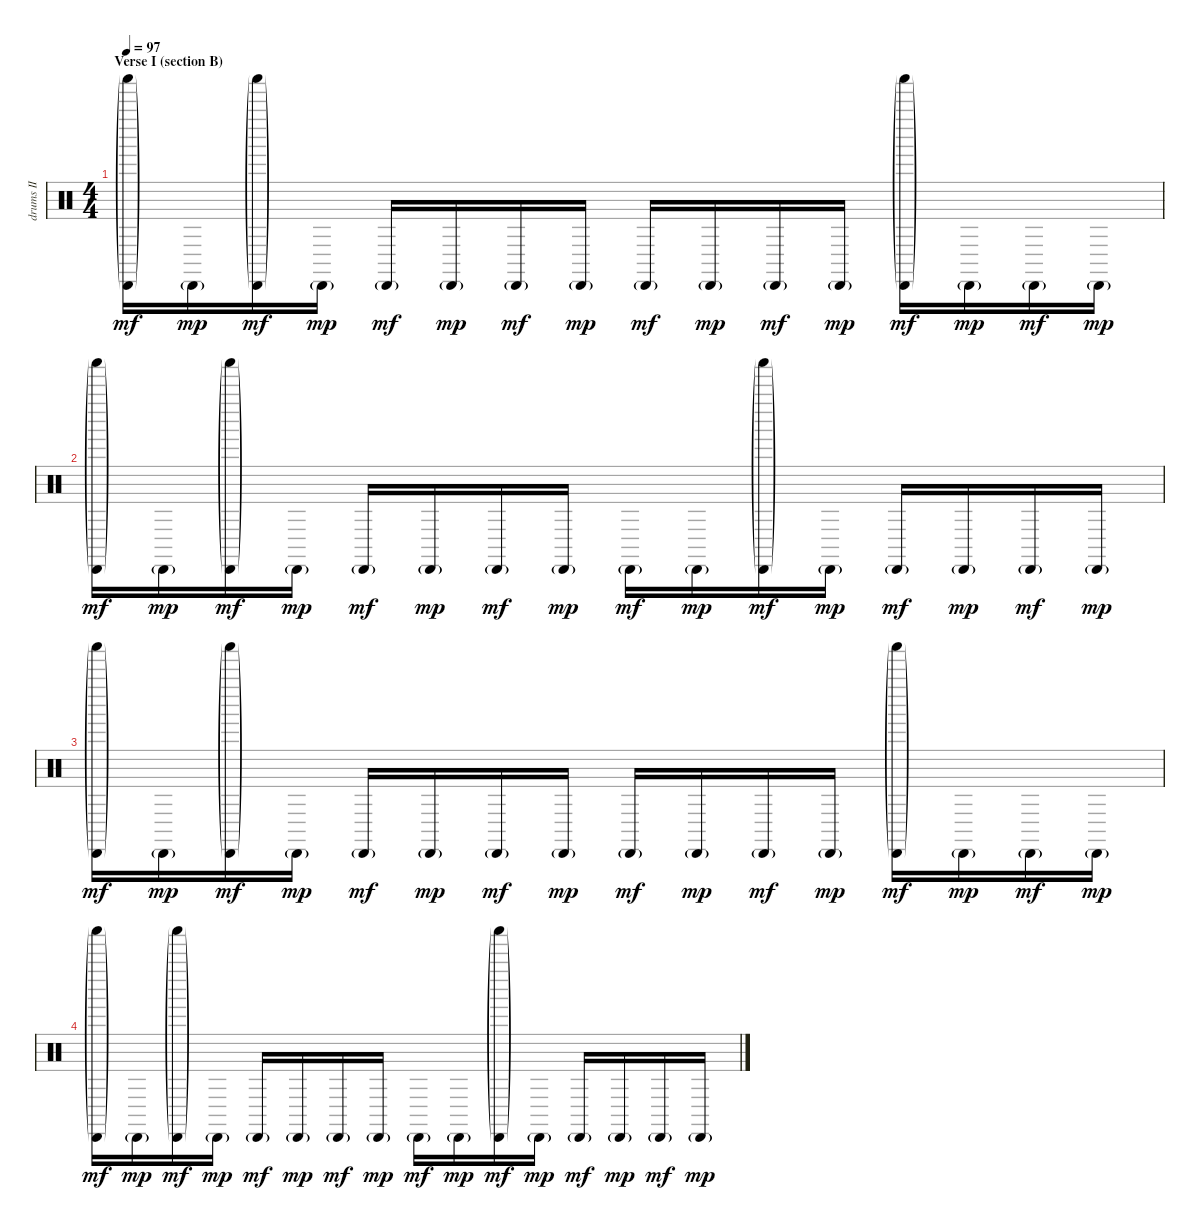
\track ("drums II" "drums II") {instrument percussion}
\staff {score}
\articulation defaults
\ts (4 4)
\section ("" "Verse I (section B)")
\tempo 97
\clef neutral
\ks c
("Shaker (hit)"{g} "Cabasa (hit)"{g}).16{dy mf} "Cabasa (hit)"{g}.16{dy mp} ("Shaker (hit)"{g} "Cabasa (hit)"{g}).16{dy mf} "Cabasa (hit)"{g}.16{dy mp} "Cabasa (hit)"{g}.16{dy mf} "Cabasa (hit)"{g}.16{dy mp} "Cabasa (hit)"{g}.16{dy mf} "Cabasa (hit)"{g}.16{dy mp} "Cabasa (hit)"{g}.16{dy mf} "Cabasa (hit)"{g}.16{dy mp} "Cabasa (hit)"{g}.16{dy mf} "Cabasa (hit)"{g}.16{dy mp} ("Shaker (hit)"{g} "Cabasa (hit)"{g}).16{dy mf} "Cabasa (hit)"{g}.16{dy mp} "Cabasa (hit)"{g}.16{dy mf} "Cabasa (hit)"{g}.16{dy mp} |
("Shaker (hit)"{g} "Cabasa (hit)"{g}).16{dy mf} "Cabasa (hit)"{g}.16{dy mp} ("Shaker (hit)"{g} "Cabasa (hit)"{g}).16{dy mf} "Cabasa (hit)"{g}.16{dy mp} "Cabasa (hit)"{g}.16{dy mf} "Cabasa (hit)"{g}.16{dy mp} "Cabasa (hit)"{g}.16{dy mf} "Cabasa (hit)"{g}.16{dy mp} "Cabasa (hit)"{g}.16{dy mf} "Cabasa (hit)"{g}.16{dy mp} ("Shaker (hit)"{g} "Cabasa (hit)"{g}).16{dy mf} "Cabasa (hit)"{g}.16{dy mp} "Cabasa (hit)"{g}.16{dy mf} "Cabasa (hit)"{g}.16{dy mp} "Cabasa (hit)"{g}.16{dy mf} "Cabasa (hit)"{g}.16{dy mp} |
("Shaker (hit)"{g} "Cabasa (hit)"{g}).16{dy mf} "Cabasa (hit)"{g}.16{dy mp} ("Shaker (hit)"{g} "Cabasa (hit)"{g}).16{dy mf} "Cabasa (hit)"{g}.16{dy mp} "Cabasa (hit)"{g}.16{dy mf} "Cabasa (hit)"{g}.16{dy mp} "Cabasa (hit)"{g}.16{dy mf} "Cabasa (hit)"{g}.16{dy mp} "Cabasa (hit)"{g}.16{dy mf} "Cabasa (hit)"{g}.16{dy mp} "Cabasa (hit)"{g}.16{dy mf} "Cabasa (hit)"{g}.16{dy mp} ("Shaker (hit)"{g} "Cabasa (hit)"{g}).16{dy mf} "Cabasa (hit)"{g}.16{dy mp} "Cabasa (hit)"{g}.16{dy mf} "Cabasa (hit)"{g}.16{dy mp} |
("Shaker (hit)"{g} "Cabasa (hit)"{g}).16{dy mf} "Cabasa (hit)"{g}.16{dy mp} ("Shaker (hit)"{g} "Cabasa (hit)"{g}).16{dy mf} "Cabasa (hit)"{g}.16{dy mp} "Cabasa (hit)"{g}.16{dy mf} "Cabasa (hit)"{g}.16{dy mp} "Cabasa (hit)"{g}.16{dy mf} "Cabasa (hit)"{g}.16{dy mp} "Cabasa (hit)"{g}.16{dy mf} "Cabasa (hit)"{g}.16{dy mp} ("Shaker (hit)"{g} "Cabasa (hit)"{g}).16{dy mf} "Cabasa (hit)"{g}.16{dy mp} "Cabasa (hit)"{g}.16{dy mf} "Cabasa (hit)"{g}.16{dy mp} "Cabasa (hit)"{g}.16{dy mf} "Cabasa (hit)"{g}.16{dy mp}
